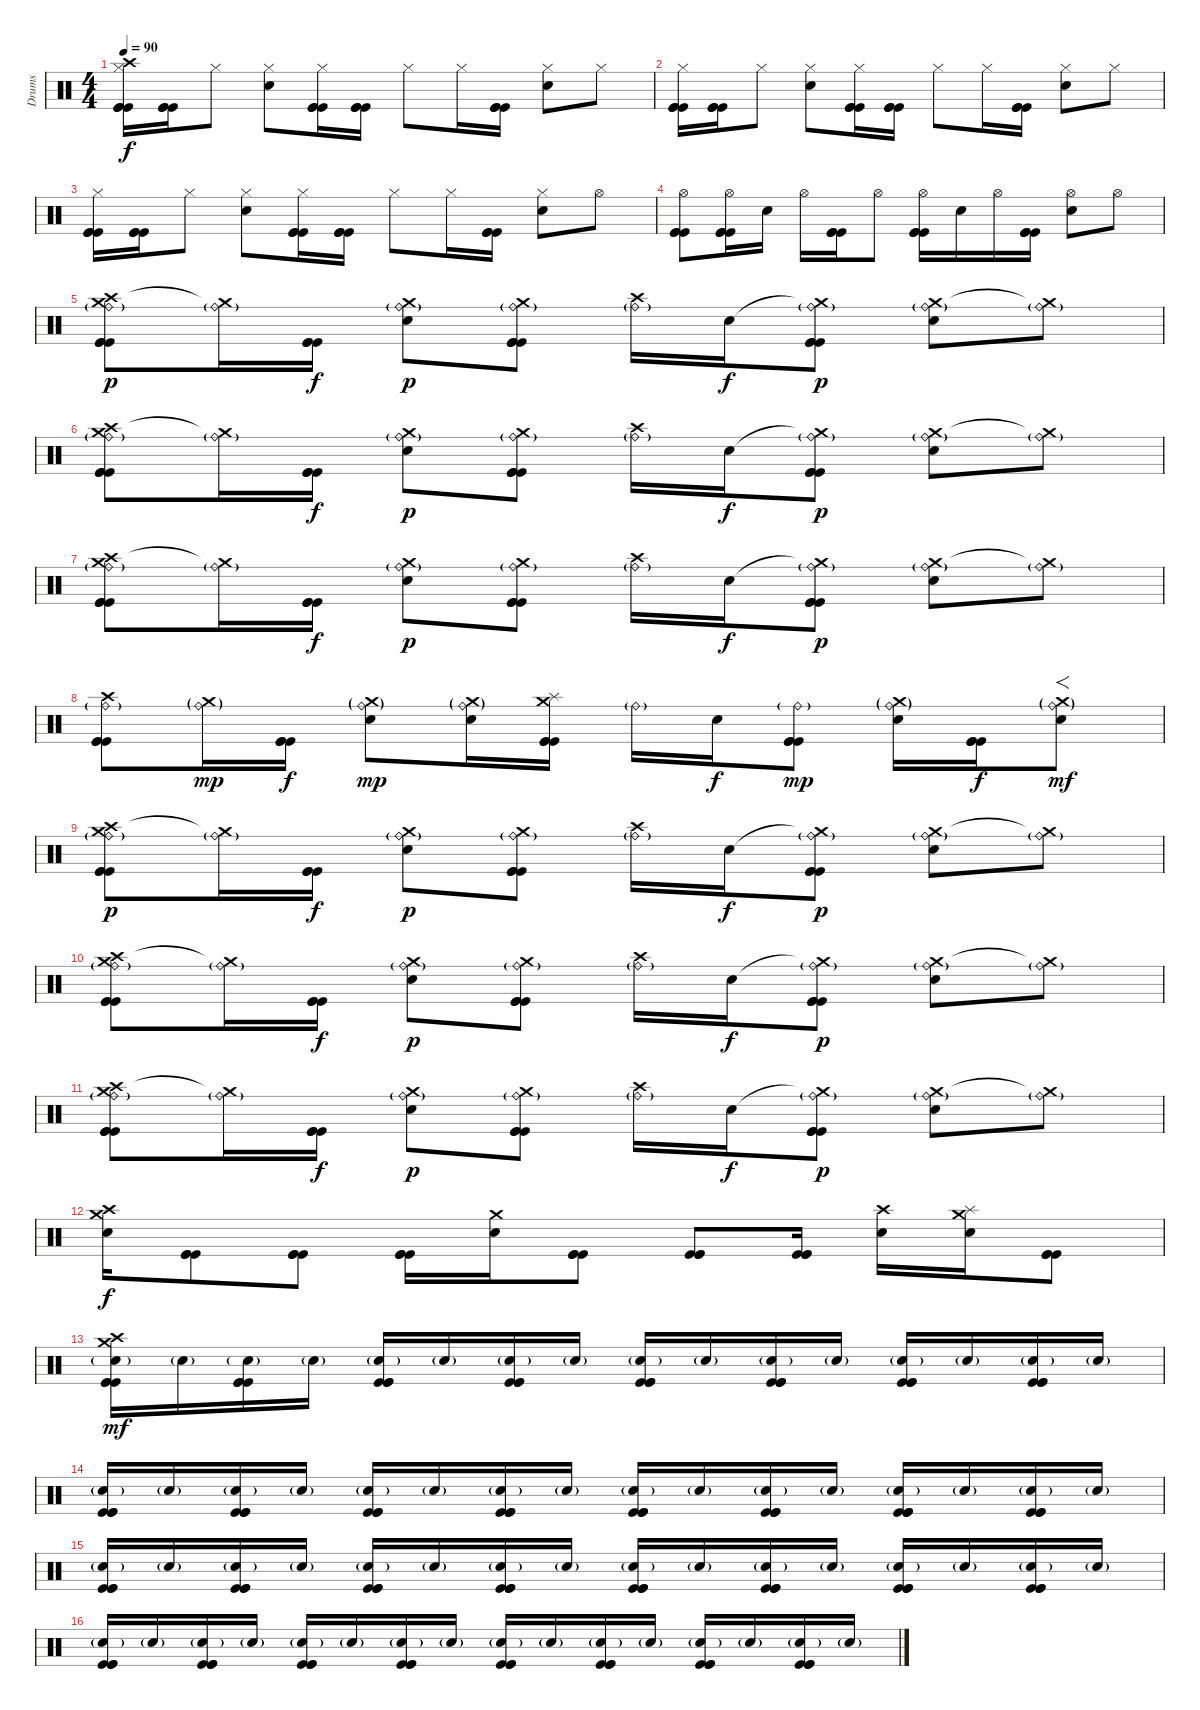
\track ("Drums" "Drums") {instrument percussion}
\staff {score}
\articulation defaults
\ts (4 4)
\tempo 90
\clef neutral
\ks c
("Crash high (hit)" "Hi-Hat (closed)" "Kick (hit)" "Kick (hit)" "Kick (hit)").16{dy f} ("Kick (hit)" "Kick (hit)" "Kick (hit)").16 "Hi-Hat (closed)".8 ("Hi-Hat (closed)" "Electric Snare (hit)").8 ("Hi-Hat (closed)" "Kick (hit)" "Kick (hit)" "Kick (hit)").16 ("Kick (hit)" "Kick (hit)" "Kick (hit)").16 "Hi-Hat (closed)".8 "Hi-Hat (closed)".16 ("Kick (hit)" "Kick (hit)" "Kick (hit)").16 ("Hi-Hat (closed)" "Electric Snare (hit)").8 "Hi-Hat (closed)".8 |
("Hi-Hat (closed)" "Kick (hit)" "Kick (hit)" "Kick (hit)").16 ("Kick (hit)" "Kick (hit)" "Kick (hit)").16 "Hi-Hat (closed)".8 ("Hi-Hat (closed)" "Electric Snare (hit)").8 ("Hi-Hat (closed)" "Kick (hit)" "Kick (hit)" "Kick (hit)").16 ("Kick (hit)" "Kick (hit)" "Kick (hit)").16 "Hi-Hat (closed)".8 "Hi-Hat (closed)".16 ("Kick (hit)" "Kick (hit)" "Kick (hit)").16 ("Hi-Hat (closed)" "Electric Snare (hit)").8 "Hi-Hat (closed)".8 |
("Hi-Hat (closed)" "Kick (hit)" "Kick (hit)" "Kick (hit)").16 ("Kick (hit)" "Kick (hit)" "Kick (hit)").16 "Hi-Hat (closed)".8 ("Hi-Hat (closed)" "Electric Snare (hit)").8 ("Hi-Hat (closed)" "Kick (hit)" "Kick (hit)" "Kick (hit)").16 ("Kick (hit)" "Kick (hit)" "Kick (hit)").16 "Hi-Hat (closed)".8 "Hi-Hat (closed)".16 ("Kick (hit)" "Kick (hit)" "Kick (hit)").16 ("Hi-Hat (closed)" "Electric Snare (hit)").8 "Hi-Hat (open)".8 |
("Hi-Hat (open)" "Kick (hit)" "Kick (hit)" "Kick (hit)").8 ("Hi-Hat (open)" "Kick (hit)" "Kick (hit)" "Kick (hit)").16 "Electric Snare (hit)".16 "Hi-Hat (open)".16 ("Kick (hit)" "Kick (hit)" "Kick (hit)").16 "Hi-Hat (open)".8 ("Hi-Hat (open)" "Kick (hit)" "Kick (hit)" "Kick (hit)").16 "Electric Snare (hit)".16 "Hi-Hat (open)".16 ("Kick (hit)" "Kick (hit)" "Kick (hit)").16 ("Hi-Hat (open)" "Electric Snare (hit)").8 "Hi-Hat (open)".8 |
("Crash high (hit)" "Crash medium (hit)" "Ride (bell)"{g} "Kick (hit)" "Kick (hit)" "Kick (hit)").8{dy p} ("Crash medium (hit)"{t} "Ride (bell)"{g}).16 ("Kick (hit)" "Kick (hit)" "Kick (hit)").16{dy f} ("Crash medium (hit)" "Ride (bell)"{g} "Electric Snare (hit)").8{dy p} ("Crash medium (hit)" "Ride (bell)"{g} "Kick (hit)" "Kick (hit)" "Kick (hit)").8 ("Crash high (hit)" "Ride (bell)"{g}).16 "Electric Snare (hit)".16{dy f} ("Crash medium (hit)"{t} "Ride (bell)"{g} "Kick (hit)" "Kick (hit)" "Kick (hit)").8{dy p} ("Crash medium (hit)" "Ride (bell)"{g} "Electric Snare (hit)").8 ("Crash medium (hit)"{t} "Ride (bell)"{g}).8 |
("Crash high (hit)" "Crash medium (hit)" "Ride (bell)"{g} "Kick (hit)" "Kick (hit)" "Kick (hit)").8 ("Crash medium (hit)"{t} "Ride (bell)"{g}).16 ("Kick (hit)" "Kick (hit)" "Kick (hit)").16{dy f} ("Crash medium (hit)" "Ride (bell)"{g} "Electric Snare (hit)").8{dy p} ("Crash medium (hit)" "Ride (bell)"{g} "Kick (hit)" "Kick (hit)" "Kick (hit)").8 ("Crash high (hit)" "Ride (bell)"{g}).16 "Electric Snare (hit)".16{dy f} ("Crash medium (hit)"{t} "Ride (bell)"{g} "Kick (hit)" "Kick (hit)" "Kick (hit)").8{dy p} ("Crash medium (hit)" "Ride (bell)"{g} "Electric Snare (hit)").8 ("Crash medium (hit)"{t} "Ride (bell)"{g}).8 |
("Crash high (hit)" "Crash medium (hit)" "Ride (bell)"{g} "Kick (hit)" "Kick (hit)" "Kick (hit)").8 ("Crash medium (hit)"{t} "Ride (bell)"{g}).16 ("Kick (hit)" "Kick (hit)" "Kick (hit)").16{dy f} ("Crash medium (hit)" "Ride (bell)"{g} "Electric Snare (hit)").8{dy p} ("Crash medium (hit)" "Ride (bell)"{g} "Kick (hit)" "Kick (hit)" "Kick (hit)").8 ("Crash high (hit)" "Ride (bell)"{g}).16 "Electric Snare (hit)".16{dy f} ("Crash medium (hit)"{t} "Ride (bell)"{g} "Kick (hit)" "Kick (hit)" "Kick (hit)").8{dy p} ("Crash medium (hit)" "Ride (bell)"{g} "Electric Snare (hit)").8 ("Crash medium (hit)"{t} "Ride (bell)"{g}).8 |
("Crash high (hit)" "Ride (bell)"{g} "Kick (hit)" "Kick (hit)" "Kick (hit)").8 ("Crash medium (hit)"{g} "Ride (bell)"{g}).16{dy mp} ("Kick (hit)" "Kick (hit)" "Kick (hit)").16{dy f} ("Crash medium (hit)"{g} "Ride (bell)"{g} "Electric Snare (hit)").8{dy mp} ("Crash medium (hit)"{g} "Ride (bell)"{g} "Electric Snare (hit)").16 ("Splash (hit)" "Crash medium (hit)" "Kick (hit)" "Kick (hit)" "Kick (hit)").16 "Ride (bell)"{g}.16 "Electric Snare (hit)".16{dy f} ("Ride (bell)"{g} "Kick (hit)" "Kick (hit)" "Kick (hit)").8{dy mp} ("Crash medium (hit)"{g} "Ride (bell)"{g} "Electric Snare (hit)").16 ("Kick (hit)" "Kick (hit)" "Kick (hit)").16{dy f} ("Crash medium (hit)"{g} "Ride (bell)"{g} "Electric Snare (hit)"{tr (40 64)}).8{f dy mf} |
("Crash high (hit)" "Crash medium (hit)" "Ride (bell)"{g} "Kick (hit)" "Kick (hit)" "Kick (hit)").8{dy p} ("Crash medium (hit)"{t} "Ride (bell)"{g}).16 ("Kick (hit)" "Kick (hit)" "Kick (hit)").16{dy f} ("Crash medium (hit)" "Ride (bell)"{g} "Electric Snare (hit)").8{dy p} ("Crash medium (hit)" "Ride (bell)"{g} "Kick (hit)" "Kick (hit)" "Kick (hit)").8 ("Crash high (hit)" "Ride (bell)"{g}).16 "Electric Snare (hit)".16{dy f} ("Crash medium (hit)"{t} "Ride (bell)"{g} "Kick (hit)" "Kick (hit)" "Kick (hit)").8{dy p} ("Crash medium (hit)" "Ride (bell)"{g} "Electric Snare (hit)").8 ("Crash medium (hit)"{t} "Ride (bell)"{g}).8 |
("Crash high (hit)" "Crash medium (hit)" "Ride (bell)"{g} "Kick (hit)" "Kick (hit)" "Kick (hit)").8 ("Crash medium (hit)"{t} "Ride (bell)"{g}).16 ("Kick (hit)" "Kick (hit)" "Kick (hit)").16{dy f} ("Crash medium (hit)" "Ride (bell)"{g} "Electric Snare (hit)").8{dy p} ("Crash medium (hit)" "Ride (bell)"{g} "Kick (hit)" "Kick (hit)" "Kick (hit)").8 ("Crash high (hit)" "Ride (bell)"{g}).16 "Electric Snare (hit)".16{dy f} ("Crash medium (hit)"{t} "Ride (bell)"{g} "Kick (hit)" "Kick (hit)" "Kick (hit)").8{dy p} ("Crash medium (hit)" "Ride (bell)"{g} "Electric Snare (hit)").8 ("Crash medium (hit)"{t} "Ride (bell)"{g}).8 |
("Crash high (hit)" "Crash medium (hit)" "Ride (bell)"{g} "Kick (hit)" "Kick (hit)" "Kick (hit)").8 ("Crash medium (hit)"{t} "Ride (bell)"{g}).16 ("Kick (hit)" "Kick (hit)" "Kick (hit)").16{dy f} ("Crash medium (hit)" "Ride (bell)"{g} "Electric Snare (hit)").8{dy p} ("Crash medium (hit)" "Ride (bell)"{g} "Kick (hit)" "Kick (hit)" "Kick (hit)").8 ("Crash high (hit)" "Ride (bell)"{g}).16 "Electric Snare (hit)".16{dy f} ("Crash medium (hit)"{t} "Ride (bell)"{g} "Kick (hit)" "Kick (hit)" "Kick (hit)").8{dy p} ("Crash medium (hit)" "Ride (bell)"{g} "Electric Snare (hit)").8 ("Crash medium (hit)"{t} "Ride (bell)"{g}).8 |
("Crash high (hit)" "Crash medium (hit)" "Electric Snare (hit)").16{dy f} ("Kick (hit)" "Kick (hit)" "Kick (hit)").8 ("Kick (hit)" "Kick (hit)" "Kick (hit)").8 ("Kick (hit)" "Kick (hit)" "Kick (hit)").16 ("Crash medium (hit)" "Electric Snare (hit)").16 ("Kick (hit)" "Kick (hit)" "Kick (hit)").8 ("Kick (hit)" "Kick (hit)" "Kick (hit)").8 ("Kick (hit)" "Kick (hit)" "Kick (hit)").16 ("Crash high (hit)" "Electric Snare (hit)").16 ("Crash medium (hit)" "Splash (hit)" "Electric Snare (hit)").16 ("Kick (hit)" "Kick (hit)" "Kick (hit)").8 |
("Crash high (hit)" "Crash medium (hit)" "Electric Snare (hit)"{g} "Kick (hit)" "Kick (hit)" "Kick (hit)").16{dy mf} "Electric Snare (hit)"{g}.16 ("Electric Snare (hit)"{g} "Kick (hit)" "Kick (hit)" "Kick (hit)").16 "Electric Snare (hit)"{g}.16 ("Electric Snare (hit)"{g} "Kick (hit)" "Kick (hit)" "Kick (hit)").16 "Electric Snare (hit)"{g}.16 ("Electric Snare (hit)"{g} "Kick (hit)" "Kick (hit)" "Kick (hit)").16 "Electric Snare (hit)"{g}.16 ("Electric Snare (hit)"{g} "Kick (hit)" "Kick (hit)" "Kick (hit)").16 "Electric Snare (hit)"{g}.16 ("Electric Snare (hit)"{g} "Kick (hit)" "Kick (hit)" "Kick (hit)").16 "Electric Snare (hit)"{g}.16 ("Electric Snare (hit)"{g} "Kick (hit)" "Kick (hit)" "Kick (hit)").16 "Electric Snare (hit)"{g}.16 ("Electric Snare (hit)"{g} "Kick (hit)" "Kick (hit)" "Kick (hit)").16 "Electric Snare (hit)"{g}.16 |
("Electric Snare (hit)"{g} "Kick (hit)" "Kick (hit)" "Kick (hit)").16 "Electric Snare (hit)"{g}.16 ("Electric Snare (hit)"{g} "Kick (hit)" "Kick (hit)" "Kick (hit)").16 "Electric Snare (hit)"{g}.16 ("Electric Snare (hit)"{g} "Kick (hit)" "Kick (hit)" "Kick (hit)").16 "Electric Snare (hit)"{g}.16 ("Electric Snare (hit)"{g} "Kick (hit)" "Kick (hit)" "Kick (hit)").16 "Electric Snare (hit)"{g}.16 ("Electric Snare (hit)"{g} "Kick (hit)" "Kick (hit)" "Kick (hit)").16 "Electric Snare (hit)"{g}.16 ("Electric Snare (hit)"{g} "Kick (hit)" "Kick (hit)" "Kick (hit)").16 "Electric Snare (hit)"{g}.16 ("Electric Snare (hit)"{g} "Kick (hit)" "Kick (hit)" "Kick (hit)").16 "Electric Snare (hit)"{g}.16 ("Electric Snare (hit)"{g} "Kick (hit)" "Kick (hit)" "Kick (hit)").16 "Electric Snare (hit)"{g}.16 |
("Electric Snare (hit)"{g} "Kick (hit)" "Kick (hit)" "Kick (hit)").16 "Electric Snare (hit)"{g}.16 ("Electric Snare (hit)"{g} "Kick (hit)" "Kick (hit)" "Kick (hit)").16 "Electric Snare (hit)"{g}.16 ("Electric Snare (hit)"{g} "Kick (hit)" "Kick (hit)" "Kick (hit)").16 "Electric Snare (hit)"{g}.16 ("Electric Snare (hit)"{g} "Kick (hit)" "Kick (hit)" "Kick (hit)").16 "Electric Snare (hit)"{g}.16 ("Electric Snare (hit)"{g} "Kick (hit)" "Kick (hit)" "Kick (hit)").16 "Electric Snare (hit)"{g}.16 ("Electric Snare (hit)"{g} "Kick (hit)" "Kick (hit)" "Kick (hit)").16 "Electric Snare (hit)"{g}.16 ("Electric Snare (hit)"{g} "Kick (hit)" "Kick (hit)" "Kick (hit)").16 "Electric Snare (hit)"{g}.16 ("Electric Snare (hit)"{g} "Kick (hit)" "Kick (hit)" "Kick (hit)").16 "Electric Snare (hit)"{g}.16 |
("Electric Snare (hit)"{g} "Kick (hit)" "Kick (hit)" "Kick (hit)").16 "Electric Snare (hit)"{g}.16 ("Electric Snare (hit)"{g} "Kick (hit)" "Kick (hit)" "Kick (hit)").16 "Electric Snare (hit)"{g}.16 ("Electric Snare (hit)"{g} "Kick (hit)" "Kick (hit)" "Kick (hit)").16 "Electric Snare (hit)"{g}.16 ("Electric Snare (hit)"{g} "Kick (hit)" "Kick (hit)" "Kick (hit)").16 "Electric Snare (hit)"{g}.16 ("Electric Snare (hit)"{g} "Kick (hit)" "Kick (hit)" "Kick (hit)").16 "Electric Snare (hit)"{g}.16 ("Electric Snare (hit)"{g} "Kick (hit)" "Kick (hit)" "Kick (hit)").16 "Electric Snare (hit)"{g}.16 ("Electric Snare (hit)"{g} "Kick (hit)" "Kick (hit)" "Kick (hit)").16 "Electric Snare (hit)"{g}.16 ("Electric Snare (hit)"{g} "Kick (hit)" "Kick (hit)" "Kick (hit)").16 "Electric Snare (hit)"{g}.16
